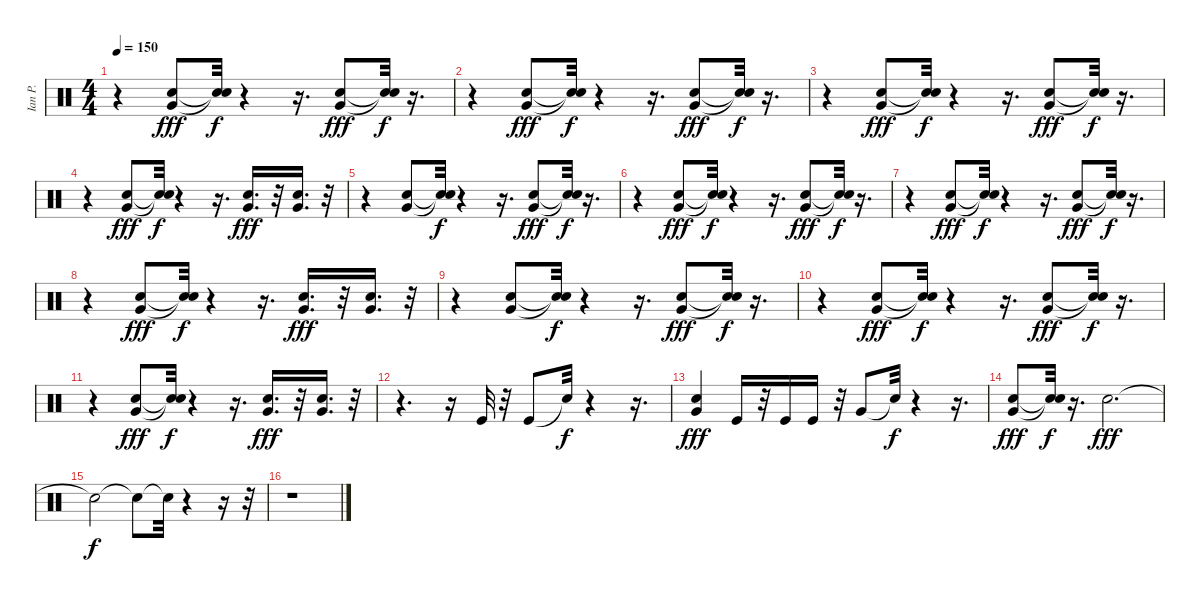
\track ("Ian P." "Ian P.") {instrument percussion}
\staff {score}
\articulation defaults
\ts (4 4)
\tempo 150
\clef neutral
\ks c
r.4{dy fff} ("Electric Snare (hit)" "Very Low Tom (hit)").8 ("Snare (hit)"{t} "Snare (hit)"{t}).32{dy f} r.4 r.16{d} ("Electric Snare (hit)" "Very Low Tom (hit)").8{dy fff} ("Snare (hit)"{t} "Snare (hit)"{t}).32{dy f} r.16{d} |
r.4 ("Electric Snare (hit)" "Very Low Tom (hit)").8{dy fff} ("Snare (hit)"{t} "Snare (hit)"{t}).32{dy f} r.4 r.16{d} ("Electric Snare (hit)" "Very Low Tom (hit)").8{dy fff} ("Snare (hit)"{t} "Snare (hit)"{t}).32{dy f} r.16{d} |
r.4 ("Electric Snare (hit)" "Very Low Tom (hit)").8{dy fff} ("Snare (hit)"{t} "Snare (hit)"{t}).32{dy f} r.4 r.16{d} ("Electric Snare (hit)" "Very Low Tom (hit)").8{dy fff} ("Snare (hit)"{t} "Snare (hit)"{t}).32{dy f} r.16{d} |
r.4 ("Electric Snare (hit)" "Very Low Tom (hit)").8{dy fff} ("Snare (hit)"{t} "Snare (hit)"{t}).32{dy f} r.4 r.16{d} ("Electric Snare (hit)" "Very Low Tom (hit)").16{d dy fff} r.32 ("Electric Snare (hit)" "Very Low Tom (hit)").16{d} r.32 |
r.4 ("Electric Snare (hit)" "Very Low Tom (hit)").8 ("Snare (hit)"{t} "Snare (hit)"{t}).32{dy f} r.4 r.16{d} ("Electric Snare (hit)" "Very Low Tom (hit)").8{dy fff} ("Snare (hit)"{t} "Snare (hit)"{t}).32{dy f} r.16{d} |
r.4 ("Electric Snare (hit)" "Very Low Tom (hit)").8{dy fff} ("Snare (hit)"{t} "Snare (hit)"{t}).32{dy f} r.4 r.16{d} ("Electric Snare (hit)" "Very Low Tom (hit)").8{dy fff} ("Snare (hit)"{t} "Snare (hit)"{t}).32{dy f} r.16{d} |
r.4 ("Electric Snare (hit)" "Very Low Tom (hit)").8{dy fff} ("Snare (hit)"{t} "Snare (hit)"{t}).32{dy f} r.4 r.16{d} ("Electric Snare (hit)" "Very Low Tom (hit)").8{dy fff} ("Snare (hit)"{t} "Snare (hit)"{t}).32{dy f} r.16{d} |
r.4 ("Electric Snare (hit)" "Very Low Tom (hit)").8{dy fff} ("Snare (hit)"{t} "Snare (hit)"{t}).32{dy f} r.4 r.16{d} ("Electric Snare (hit)" "Very Low Tom (hit)").16{d dy fff} r.32 ("Electric Snare (hit)" "Very Low Tom (hit)").16{d} r.32 |
r.4 ("Electric Snare (hit)" "Very Low Tom (hit)").8 ("Snare (hit)"{t} "Snare (hit)"{t}).32{dy f} r.4 r.16{d} ("Electric Snare (hit)" "Very Low Tom (hit)").8{dy fff} ("Snare (hit)"{t} "Snare (hit)"{t}).32{dy f} r.16{d} |
r.4 ("Electric Snare (hit)" "Very Low Tom (hit)").8{dy fff} ("Snare (hit)"{t} "Snare (hit)"{t}).32{dy f} r.4 r.16{d} ("Electric Snare (hit)" "Very Low Tom (hit)").8{dy fff} ("Snare (hit)"{t} "Snare (hit)"{t}).32{dy f} r.16{d} |
r.4 ("Electric Snare (hit)" "Very Low Tom (hit)").8{dy fff} ("Snare (hit)"{t} "Snare (hit)"{t}).32{dy f} r.4 r.16{d} ("Electric Snare (hit)" "Very Low Tom (hit)").16{d dy fff} r.32 ("Electric Snare (hit)" "Very Low Tom (hit)").16{d} r.32 |
r.4{d} r.16 "Kick (hit)".32 r.32 "Kick (hit)".8 "Snare (hit)"{t}.32{dy f} r.4 r.16{d} |
("Electric Snare (hit)" "Very Low Tom (hit)").4{dy fff} "Kick (hit)".16 r.32 "Kick (hit)".16 "Kick (hit)".16 r.32 "Very Low Tom (hit)".8 "Snare (hit)"{t}.32{dy f} r.4 r.16{d} |
("Very Low Tom (hit)" "Electric Snare (hit)").8{dy fff} ("Snare (hit)"{t} "Snare (hit)"{t}).32{dy f} r.16{d} "Electric Snare (hit)".2{d dy fff} |
"Snare (hit)"{t}.2{dy f} "Snare (hit)"{t}.8 "Snare (hit)"{t}.32 r.4 r.16 r.32 |
r.1
